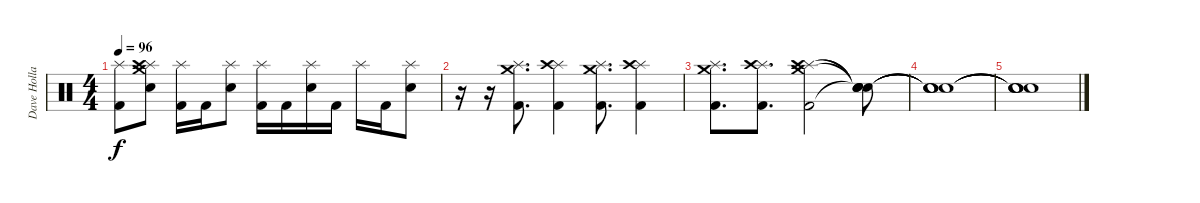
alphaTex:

\track ("Dave Holland" "Dave Holla") {instrument percussion}
\staff {score}
\articulation defaults
\ts (4 4)
\tempo 96
\clef neutral
\ks c
("Splash (hit)" "Kick (hit) 2").8{dy f} ("Crash medium (hit)" "Splash (hit)" "Crash high (hit)" "Snare (hit) 2").8 ("Splash (hit)" "Kick (hit) 2").16 "Kick (hit) 2".16 ("Splash (hit)" "Snare (hit) 2").8 ("Splash (hit)" "Kick (hit) 2").16 "Kick (hit) 2".16 ("Splash (hit)" "Snare (hit) 2").16 "Kick (hit) 2".16 "Splash (hit)".16 "Kick (hit) 2".16 ("Splash (hit)" "Snare (hit) 2").8 |
r.16 r.16 ("Crash medium (hit)" "Splash (hit)" "Kick (hit) 2").8{d} ("Splash (hit)" "Crash high (hit)" "Kick (hit) 2").4 ("Crash medium (hit)" "Splash (hit)" "Kick (hit) 2").8{d} ("Splash (hit)" "Crash high (hit)" "Kick (hit) 2").4 |
("Crash medium (hit)" "Splash (hit)" "Kick (hit) 2").8{d} ("Splash (hit)" "Crash high (hit)" "Kick (hit) 2").8{d} ("Crash medium (hit)" "Splash (hit)" "Crash high (hit)" "Kick (hit) 2").2 ("Snare (hit)"{t} "Snare (hit)"{t} "Snare (hit)"{t} "Snare (hit)"{t}).8 |
("Snare (hit)"{t} "Snare (hit)"{t} "Snare (hit)"{t} "Snare (hit)"{t}).1 |
("Snare (hit)"{t} "Snare (hit)"{t} "Snare (hit)"{t} "Snare (hit)"{t}).1
